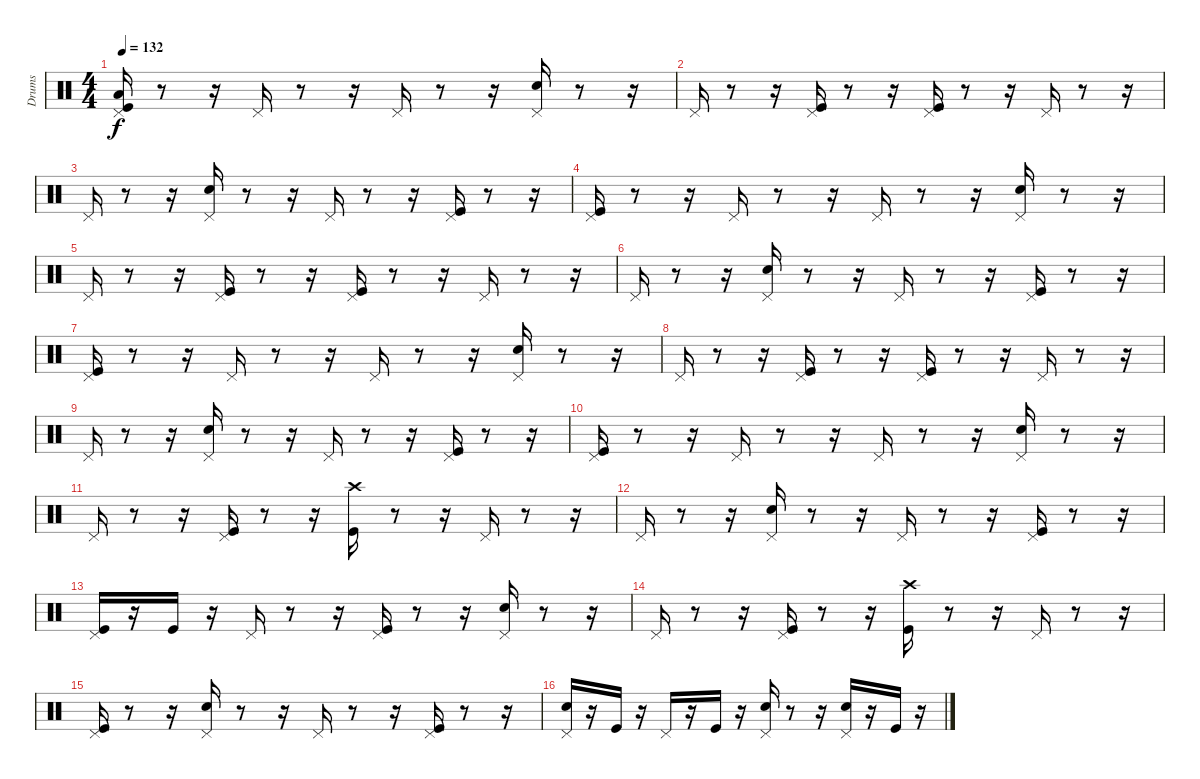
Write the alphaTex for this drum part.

\track ("Drums" "Drums") {instrument percussion}
\staff {score}
\articulation defaults
\ts (4 4)
\tempo 132
\clef neutral
\ks c
("Pedal Hi-Hat (hit)" "Low Floor Tom (hit)" "Kick (hit)").16{dy f} r.8 r.16 "Pedal Hi-Hat (hit)".16 r.8 r.16 "Pedal Hi-Hat (hit)".16 r.8 r.16 ("Pedal Hi-Hat (hit)" "Snare (hit) 2").16 r.8 r.16 |
"Pedal Hi-Hat (hit)".16 r.8 r.16 ("Pedal Hi-Hat (hit)" "Kick (hit)").16 r.8 r.16 ("Pedal Hi-Hat (hit)" "Kick (hit)").16 r.8 r.16 "Pedal Hi-Hat (hit)".16 r.8 r.16 |
"Pedal Hi-Hat (hit)".16 r.8 r.16 ("Pedal Hi-Hat (hit)" "Snare (hit) 2").16 r.8 r.16 "Pedal Hi-Hat (hit)".16 r.8 r.16 ("Pedal Hi-Hat (hit)" "Kick (hit)").16 r.8 r.16 |
("Pedal Hi-Hat (hit)" "Kick (hit)").16 r.8 r.16 "Pedal Hi-Hat (hit)".16 r.8 r.16 "Pedal Hi-Hat (hit)".16 r.8 r.16 ("Pedal Hi-Hat (hit)" "Snare (hit) 2").16 r.8 r.16 |
"Pedal Hi-Hat (hit)".16 r.8 r.16 ("Pedal Hi-Hat (hit)" "Kick (hit)").16 r.8 r.16 ("Pedal Hi-Hat (hit)" "Kick (hit)").16 r.8 r.16 "Pedal Hi-Hat (hit)".16 r.8 r.16 |
"Pedal Hi-Hat (hit)".16 r.8 r.16 ("Pedal Hi-Hat (hit)" "Snare (hit) 2").16 r.8 r.16 "Pedal Hi-Hat (hit)".16 r.8 r.16 ("Pedal Hi-Hat (hit)" "Kick (hit)").16 r.8 r.16 |
("Pedal Hi-Hat (hit)" "Kick (hit)").16 r.8 r.16 "Pedal Hi-Hat (hit)".16 r.8 r.16 "Pedal Hi-Hat (hit)".16 r.8 r.16 ("Pedal Hi-Hat (hit)" "Snare (hit) 2").16 r.8 r.16 |
"Pedal Hi-Hat (hit)".16 r.8 r.16 ("Pedal Hi-Hat (hit)" "Kick (hit)").16 r.8 r.16 ("Pedal Hi-Hat (hit)" "Kick (hit)").16 r.8 r.16 "Pedal Hi-Hat (hit)".16 r.8 r.16 |
"Pedal Hi-Hat (hit)".16 r.8 r.16 ("Pedal Hi-Hat (hit)" "Snare (hit) 2").16 r.8 r.16 "Pedal Hi-Hat (hit)".16 r.8 r.16 ("Pedal Hi-Hat (hit)" "Kick (hit)").16 r.8 r.16 |
("Pedal Hi-Hat (hit)" "Kick (hit)").16 r.8 r.16 "Pedal Hi-Hat (hit)".16 r.8 r.16 "Pedal Hi-Hat (hit)".16 r.8 r.16 ("Pedal Hi-Hat (hit)" "Snare (hit) 2").16 r.8 r.16 |
"Pedal Hi-Hat (hit)".16 r.8 r.16 ("Pedal Hi-Hat (hit)" "Kick (hit)").16 r.8 r.16 ("Crash high (hit)" "Kick (hit)").16 r.8 r.16 "Pedal Hi-Hat (hit)".16 r.8 r.16 |
"Pedal Hi-Hat (hit)".16 r.8 r.16 ("Pedal Hi-Hat (hit)" "Snare (hit) 2").16 r.8 r.16 "Pedal Hi-Hat (hit)".16 r.8 r.16 ("Pedal Hi-Hat (hit)" "Kick (hit)").16 r.8 r.16 |
("Pedal Hi-Hat (hit)" "Kick (hit)").16 r.16 "Kick (hit)".16 r.16 "Pedal Hi-Hat (hit)".16 r.8 r.16 ("Pedal Hi-Hat (hit)" "Kick (hit)").16 r.8 r.16 ("Pedal Hi-Hat (hit)" "Snare (hit) 2").16 r.8 r.16 |
"Pedal Hi-Hat (hit)".16 r.8 r.16 ("Pedal Hi-Hat (hit)" "Kick (hit)").16 r.8 r.16 ("Kick (hit)" "Crash high (hit)").16 r.8 r.16 "Pedal Hi-Hat (hit)".16 r.8 r.16 |
("Pedal Hi-Hat (hit)" "Kick (hit)").16 r.8 r.16 ("Pedal Hi-Hat (hit)" "Snare (hit) 2").16 r.8 r.16 "Pedal Hi-Hat (hit)".16 r.8 r.16 ("Pedal Hi-Hat (hit)" "Kick (hit)").16 r.8 r.16 |
("Pedal Hi-Hat (hit)" "Snare (hit) 2").16 r.16 "Kick (hit)".16 r.16 "Pedal Hi-Hat (hit)".16 r.16 "Kick (hit)".16 r.16 ("Pedal Hi-Hat (hit)" "Snare (hit) 2").16 r.8 r.16 ("Pedal Hi-Hat (hit)" "Snare (hit) 2").16 r.16 "Kick (hit)".16 r.16
